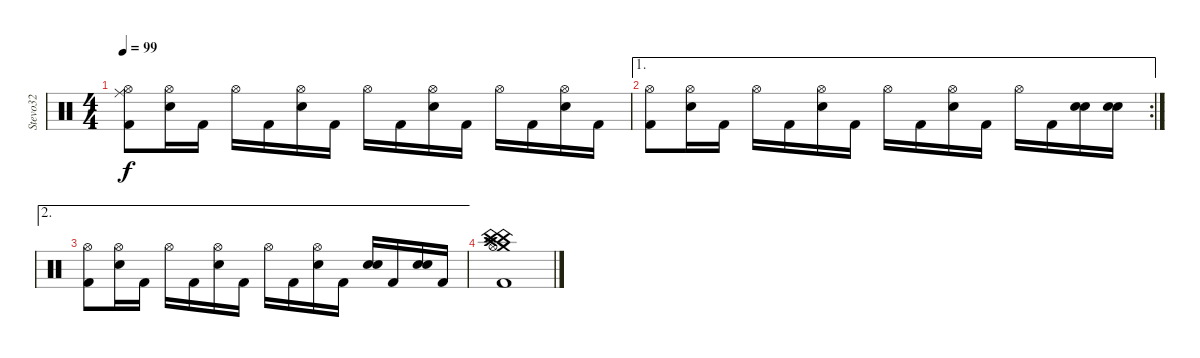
\track ("Stevo32" "Stevo32") {instrument percussion}
\staff {score}
\articulation defaults
\ts (4 4)
\tempo 99
\clef neutral
\ks c
("Hi-Hat (open)" "Ride (middle)" "Kick (hit) 2").8{dy f} ("Hi-Hat (open)" "Electric Snare (hit)").16 "Kick (hit) 2".16 "Hi-Hat (open)".16 "Kick (hit) 2".16 ("Hi-Hat (open)" "Electric Snare (hit)").16 "Kick (hit) 2".16 "Hi-Hat (open)".16 "Kick (hit) 2".16 ("Hi-Hat (open)" "Electric Snare (hit)").16 "Kick (hit) 2".16 "Hi-Hat (open)".16 "Kick (hit) 2".16 ("Hi-Hat (open)" "Electric Snare (hit)").16 "Kick (hit) 2".16 |
\ae 1
\rc 2
("Hi-Hat (open)" "Kick (hit) 2").8 ("Hi-Hat (open)" "Electric Snare (hit)").16 "Kick (hit) 2".16 "Hi-Hat (open)".16 "Kick (hit) 2".16 ("Hi-Hat (open)" "Electric Snare (hit)").16 "Kick (hit) 2".16 "Hi-Hat (open)".16 "Kick (hit) 2".16 ("Hi-Hat (open)" "Electric Snare (hit)").16 "Kick (hit) 2".16 "Hi-Hat (open)".16 "Kick (hit) 2".16 ("Electric Snare (hit)" "Electric Snare (hit)").16 ("Electric Snare (hit)" "Electric Snare (hit)").16 |
\ae 2
("Hi-Hat (open)" "Kick (hit) 2").8 ("Hi-Hat (open)" "Electric Snare (hit)").16 "Kick (hit) 2".16 "Hi-Hat (open)".16 "Kick (hit) 2".16 ("Hi-Hat (open)" "Electric Snare (hit)").16 "Kick (hit) 2".16 "Hi-Hat (open)".16 "Kick (hit) 2".16 ("Hi-Hat (open)" "Electric Snare (hit)").16 "Kick (hit) 2".16 ("Electric Snare (hit)" "Electric Snare (hit)").16 "Kick (hit) 2".16 ("Electric Snare (hit)" "Electric Snare (hit)").16 "Kick (hit) 2".16 |
("China (hit)" "Crash medium (hit)" "Hi-Hat (open)" "Crash high (hit)" "China (hit)" "Kick (hit) 2").1
